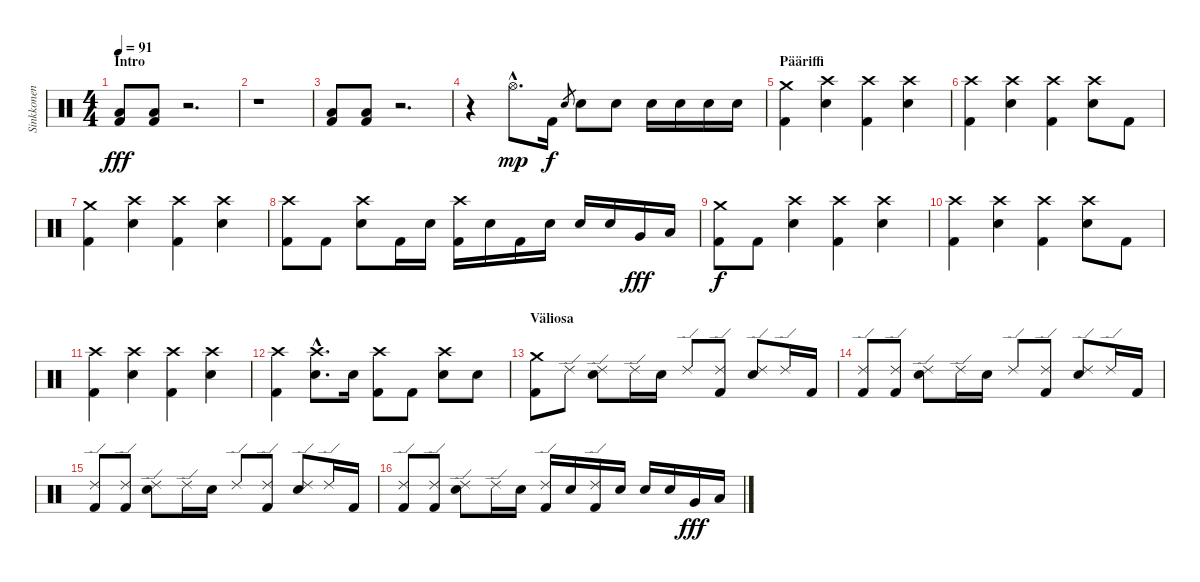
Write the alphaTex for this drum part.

\track ("Sinkkonen" "Sinkkonen") {instrument percussion}
\staff {score}
\articulation defaults
\ts (4 4)
\section ("" "Intro")
\tempo 91
\clef neutral
\ks c
("Kick (hit) 2" "Low Floor Tom (hit)").8{dy fff} ("Kick (hit) 2" "Low Floor Tom (hit)").8 r.2{d} |
r.1 |
("Kick (hit) 2" "Low Floor Tom (hit)").8 ("Kick (hit) 2" "Low Floor Tom (hit)").8 r.2{d} |
r.4 "Hi-Hat (open)"{hac}.8{d dy mp} "Kick (hit) 2".16{dy f} "Snare (hit) 2".8{gr} "Snare (hit) 2".8 "Snare (hit) 2".8 "Snare (hit) 2".16 "Snare (hit) 2".16 "Snare (hit) 2".16 "Snare (hit) 2".16 |
\section ("" "Pääriffi")
("Kick (hit) 2" "Crash medium (hit)").4 ("Crash high (hit)" "Snare (hit) 2").4 ("Kick (hit) 2" "Crash high (hit)").4 ("Crash high (hit)" "Snare (hit) 2").4 |
("Kick (hit) 2" "Crash high (hit)").4 ("Crash high (hit)" "Snare (hit) 2").4 ("Kick (hit) 2" "Crash high (hit)").4 ("Crash high (hit)" "Snare (hit) 2").8 "Kick (hit) 2".8 |
("Kick (hit) 2" "Crash medium (hit)").4 ("Crash high (hit)" "Snare (hit) 2").4 ("Kick (hit) 2" "Crash high (hit)").4 ("Crash high (hit)" "Snare (hit) 2").4 |
("Kick (hit) 2" "Crash high (hit)").8 "Kick (hit) 2".8 ("Crash high (hit)" "Snare (hit) 2").8 "Kick (hit) 2".16 "Snare (hit) 2".16 ("Kick (hit) 2" "Crash high (hit)").16 "Snare (hit) 2".16 "Kick (hit) 2".16 "Snare (hit) 2".16 "Snare (hit) 2".16 "Snare (hit) 2".16 "Very Low Tom (hit)".16{dy fff} "Low Floor Tom (hit)".16 |
("Kick (hit) 2" "Crash medium (hit)").8{dy f} "Kick (hit) 2".8 ("Crash high (hit)" "Snare (hit) 2").4 ("Kick (hit) 2" "Crash high (hit)").4 ("Crash high (hit)" "Snare (hit) 2").4 |
("Kick (hit) 2" "Crash high (hit)").4 ("Crash high (hit)" "Snare (hit) 2").4 ("Kick (hit) 2" "Crash high (hit)").4 ("Crash high (hit)" "Snare (hit) 2").8 "Kick (hit) 2".8 |
("Kick (hit) 2" "Crash high (hit)").4 ("Crash high (hit)" "Snare (hit) 2").4 ("Kick (hit) 2" "Crash high (hit)").4 ("Crash high (hit)" "Snare (hit) 2").4 |
("Kick (hit) 2" "Crash high (hit)").4 ("Crash high (hit)"{hac} "Snare (hit) 2"{hac}).8{d} "Snare (hit) 2".16 ("Kick (hit) 2" "Crash high (hit)").8 "Kick (hit) 2".8 ("Crash high (hit)" "Snare (hit) 2").8 "Snare (hit) 2".8 |
\section ("" "Väliosa")
("Kick (hit) 2" "Crash medium (hit)").8 "Ride (edge) 2".8 ("Ride (edge) 2" "Snare (hit) 2").8 "Ride (edge) 2".16 "Snare (hit) 2".16 "Ride (edge) 2".8 ("Kick (hit) 2" "Ride (edge) 2").8 ("Ride (edge) 2" "Snare (hit) 2").8 "Ride (edge) 2".16 "Kick (hit) 2".16 |
("Kick (hit) 2" "Ride (edge) 2").8 ("Kick (hit) 2" "Ride (edge) 2").8 ("Ride (edge) 2" "Snare (hit) 2").8 "Ride (edge) 2".16 "Snare (hit) 2".16 "Ride (edge) 2".8 ("Kick (hit) 2" "Ride (edge) 2").8 ("Ride (edge) 2" "Snare (hit) 2").8 "Ride (edge) 2".16 "Kick (hit) 2".16 |
("Kick (hit) 2" "Ride (edge) 2").8 ("Kick (hit) 2" "Ride (edge) 2").8 ("Ride (edge) 2" "Snare (hit) 2").8 "Ride (edge) 2".16 "Snare (hit) 2".16 "Ride (edge) 2".8 ("Kick (hit) 2" "Ride (edge) 2").8 ("Ride (edge) 2" "Snare (hit) 2").8 "Ride (edge) 2".16 "Kick (hit) 2".16 |
("Kick (hit) 2" "Ride (edge) 2").8 ("Kick (hit) 2" "Ride (edge) 2").8 ("Ride (edge) 2" "Snare (hit) 2").8 "Ride (edge) 2".16 "Snare (hit) 2".16 ("Kick (hit) 2" "Ride (edge) 2").16 "Snare (hit) 2".16 ("Kick (hit) 2" "Ride (edge) 2").16 "Snare (hit) 2".16 "Snare (hit) 2".16 "Snare (hit) 2".16 "Very Low Tom (hit)".16{dy fff} "Low Floor Tom (hit)".16
